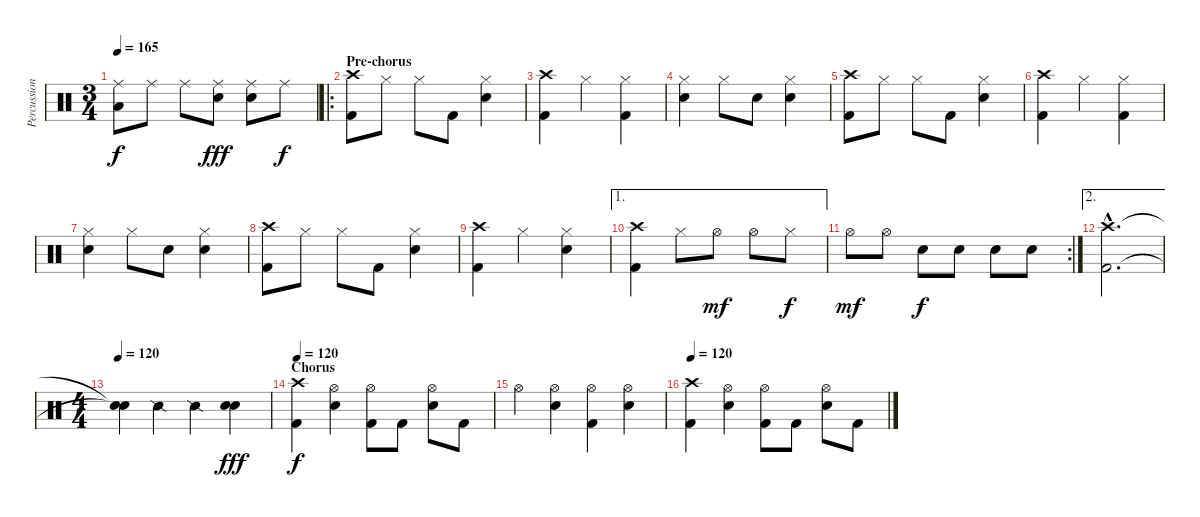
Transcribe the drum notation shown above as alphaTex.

\track ("Percussion" "Percussion") {instrument percussion}
\staff {score}
\articulation defaults
\ts (3 4)
\tempo 165
\clef neutral
\ks c
("Ride (middle)" "Low Tom (hit)").8{dy f} "Ride (middle)".8 "Ride (middle)".8 ("Ride (middle)" "Electric Snare (hit)").8{dy fff} ("Ride (middle)" "Electric Snare (hit)").8 "Ride (middle)".8{dy f} |
\ro
\section ("" "Pre-chorus")
("Crash high (hit)" "Kick (hit) 2").8 "Hi-Hat (closed)".8 "Hi-Hat (closed)".8 "Kick (hit) 2".8 ("Hi-Hat (closed)" "Electric Snare (hit)").4 |
("Crash high (hit)" "Kick (hit) 2").4 "Hi-Hat (closed)".4 ("Hi-Hat (closed)" "Kick (hit) 2").4 |
("Hi-Hat (closed)" "Electric Snare (hit)").4 "Hi-Hat (closed)".8 "Electric Snare (hit)".8 ("Hi-Hat (closed)" "Electric Snare (hit)").4 |
("Crash high (hit)" "Kick (hit) 2").8 "Hi-Hat (closed)".8 "Hi-Hat (closed)".8 "Kick (hit) 2".8 ("Hi-Hat (closed)" "Electric Snare (hit)").4 |
("Crash high (hit)" "Kick (hit) 2").4 "Hi-Hat (closed)".4 ("Hi-Hat (closed)" "Kick (hit) 2").4 |
("Hi-Hat (closed)" "Electric Snare (hit)").4 "Hi-Hat (closed)".8 "Electric Snare (hit)".8 ("Hi-Hat (closed)" "Electric Snare (hit)").4 |
("Crash high (hit)" "Kick (hit) 2").8 "Hi-Hat (closed)".8 "Hi-Hat (closed)".8 "Kick (hit) 2".8 ("Hi-Hat (closed)" "Electric Snare (hit)").4 |
("Crash high (hit)" "Kick (hit) 2").4 "Hi-Hat (closed)".4 ("Hi-Hat (closed)" "Electric Snare (hit)").4 |
\ae 1
("Crash high (hit)" "Kick (hit) 2").4 "Hi-Hat (closed)".8 "Hi-Hat (open)".8{dy mf} "Hi-Hat (open)".8 "Hi-Hat (closed)".8{dy f} |
\rc 2 "Hi-Hat (open)".8{dy mf} "Hi-Hat (open)".8 "Electric Snare (hit)".8{dy f} "Electric Snare (hit)".8 "Electric Snare (hit)".8 "Electric Snare (hit)".8
|
\ae 2
("Crash high (hit)"{hac} "Kick (hit) 2"{hac}).2{d} |
\ts (4 4)
\tempo 120
("Snare (hit)"{t} "Snare (hit)"{t}).4 "Snare (side stick) 2".4 "Snare (side stick) 2".4 ("Electric Snare (hit)" "Electric Snare (hit)").4{dy fff} |
\section ("" "Chorus")
\tempo 120
("Crash high (hit)" "Kick (hit) 2").4{dy f} ("Hi-Hat (open)" "Electric Snare (hit)").4 ("Hi-Hat (open)" "Kick (hit) 2").8 "Kick (hit) 2".8 ("Hi-Hat (open)" "Electric Snare (hit)").8 "Kick (hit) 2".8 |
"Hi-Hat (open)".4 ("Hi-Hat (open)" "Electric Snare (hit)").4 ("Hi-Hat (open)" "Kick (hit) 2").4 ("Hi-Hat (open)" "Electric Snare (hit)").4 |
\tempo 120
("Crash high (hit)" "Kick (hit) 2").4 ("Hi-Hat (open)" "Electric Snare (hit)").4 ("Hi-Hat (open)" "Kick (hit) 2").8 "Kick (hit) 2".8 ("Hi-Hat (open)" "Electric Snare (hit)").8 "Kick (hit) 2".8
